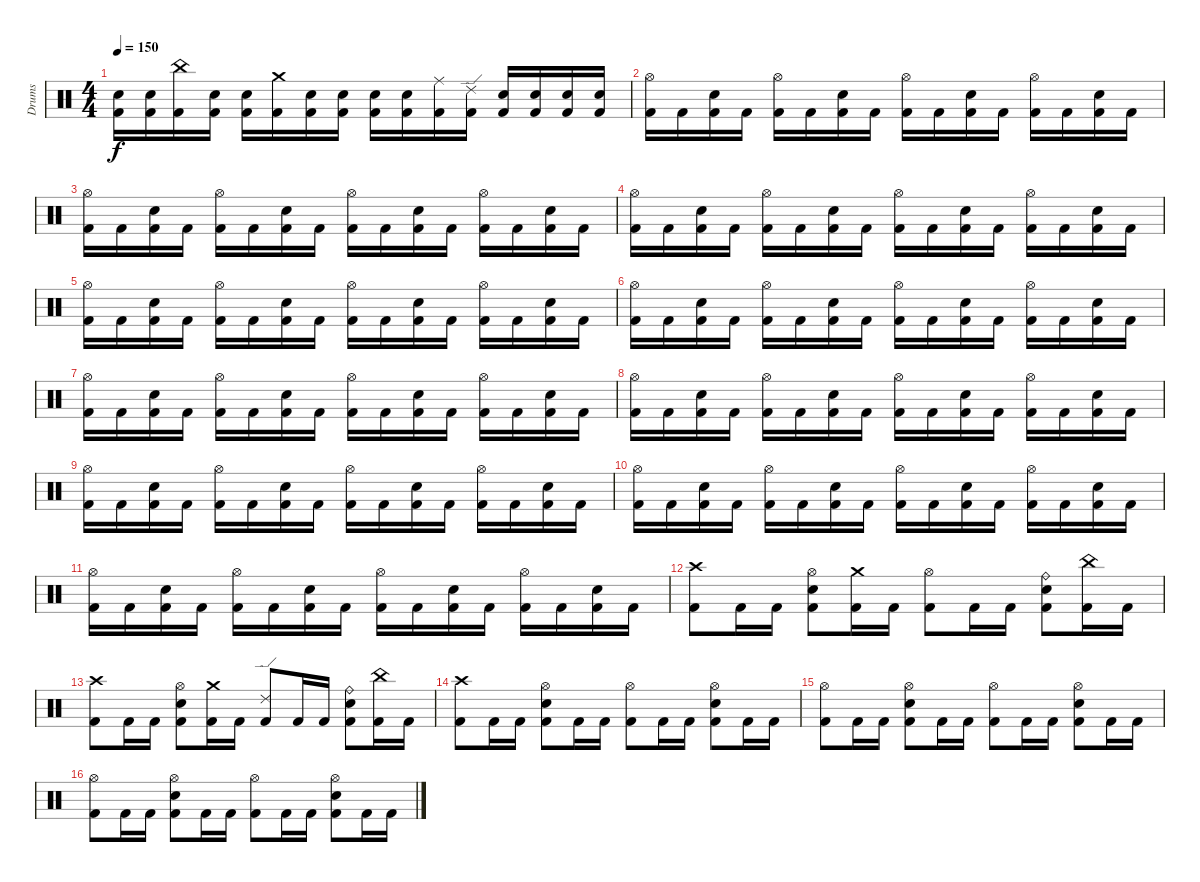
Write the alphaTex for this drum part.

\track ("Drums" "Drums") {instrument percussion}
\staff {score}
\articulation defaults
\ts (4 4)
\tempo 150
\clef neutral
\ks c
("Electric Snare (hit)" "Kick (hit) 2").16{dy f} ("Electric Snare (hit)" "Kick (hit) 2").16 ("China (hit)" "Kick (hit) 2").16 ("Electric Snare (hit)" "Kick (hit) 2").16 ("Electric Snare (hit)" "Kick (hit) 2").16 ("Crash medium (hit)" "Kick (hit) 2").16 ("Electric Snare (hit)" "Kick (hit) 2").16 ("Electric Snare (hit)" "Kick (hit) 2").16 ("Electric Snare (hit)" "Kick (hit) 2").16 ("Electric Snare (hit)" "Kick (hit) 2").16 ("Ride (middle)" "Kick (hit) 2").16 ("Ride (edge) 2" "Kick (hit) 2").16 ("Electric Snare (hit)" "Kick (hit) 2").16 ("Electric Snare (hit)" "Kick (hit) 2").16 ("Electric Snare (hit)" "Kick (hit) 2").16 ("Electric Snare (hit)" "Kick (hit) 2").16 |
("Hi-Hat (open)" "Kick (hit) 2").16 "Kick (hit) 2".16 ("Electric Snare (hit)" "Kick (hit) 2").16 "Kick (hit) 2".16 ("Hi-Hat (open)" "Kick (hit) 2").16 "Kick (hit) 2".16 ("Electric Snare (hit)" "Kick (hit) 2").16 "Kick (hit) 2".16 ("Hi-Hat (open)" "Kick (hit) 2").16 "Kick (hit) 2".16 ("Electric Snare (hit)" "Kick (hit) 2").16 "Kick (hit) 2".16 ("Hi-Hat (open)" "Kick (hit) 2").16 "Kick (hit) 2".16 ("Electric Snare (hit)" "Kick (hit) 2").16 "Kick (hit) 2".16 |
("Hi-Hat (open)" "Kick (hit) 2").16 "Kick (hit) 2".16 ("Electric Snare (hit)" "Kick (hit) 2").16 "Kick (hit) 2".16 ("Hi-Hat (open)" "Kick (hit) 2").16 "Kick (hit) 2".16 ("Electric Snare (hit)" "Kick (hit) 2").16 "Kick (hit) 2".16 ("Hi-Hat (open)" "Kick (hit) 2").16 "Kick (hit) 2".16 ("Electric Snare (hit)" "Kick (hit) 2").16 "Kick (hit) 2".16 ("Hi-Hat (open)" "Kick (hit) 2").16 "Kick (hit) 2".16 ("Electric Snare (hit)" "Kick (hit) 2").16 "Kick (hit) 2".16 |
("Hi-Hat (open)" "Kick (hit) 2").16 "Kick (hit) 2".16 ("Electric Snare (hit)" "Kick (hit) 2").16 "Kick (hit) 2".16 ("Hi-Hat (open)" "Kick (hit) 2").16 "Kick (hit) 2".16 ("Electric Snare (hit)" "Kick (hit) 2").16 "Kick (hit) 2".16 ("Hi-Hat (open)" "Kick (hit) 2").16 "Kick (hit) 2".16 ("Electric Snare (hit)" "Kick (hit) 2").16 "Kick (hit) 2".16 ("Hi-Hat (open)" "Kick (hit) 2").16 "Kick (hit) 2".16 ("Electric Snare (hit)" "Kick (hit) 2").16 "Kick (hit) 2".16 |
("Hi-Hat (open)" "Kick (hit) 2").16 "Kick (hit) 2".16 ("Electric Snare (hit)" "Kick (hit) 2").16 "Kick (hit) 2".16 ("Hi-Hat (open)" "Kick (hit) 2").16 "Kick (hit) 2".16 ("Electric Snare (hit)" "Kick (hit) 2").16 "Kick (hit) 2".16 ("Hi-Hat (open)" "Kick (hit) 2").16 "Kick (hit) 2".16 ("Electric Snare (hit)" "Kick (hit) 2").16 "Kick (hit) 2".16 ("Hi-Hat (open)" "Kick (hit) 2").16 "Kick (hit) 2".16 ("Electric Snare (hit)" "Kick (hit) 2").16 "Kick (hit) 2".16 |
("Hi-Hat (open)" "Kick (hit) 2").16 "Kick (hit) 2".16 ("Electric Snare (hit)" "Kick (hit) 2").16 "Kick (hit) 2".16 ("Hi-Hat (open)" "Kick (hit) 2").16 "Kick (hit) 2".16 ("Electric Snare (hit)" "Kick (hit) 2").16 "Kick (hit) 2".16 ("Hi-Hat (open)" "Kick (hit) 2").16 "Kick (hit) 2".16 ("Electric Snare (hit)" "Kick (hit) 2").16 "Kick (hit) 2".16 ("Hi-Hat (open)" "Kick (hit) 2").16 "Kick (hit) 2".16 ("Electric Snare (hit)" "Kick (hit) 2").16 "Kick (hit) 2".16 |
("Hi-Hat (open)" "Kick (hit) 2").16 "Kick (hit) 2".16 ("Electric Snare (hit)" "Kick (hit) 2").16 "Kick (hit) 2".16 ("Hi-Hat (open)" "Kick (hit) 2").16 "Kick (hit) 2".16 ("Electric Snare (hit)" "Kick (hit) 2").16 "Kick (hit) 2".16 ("Hi-Hat (open)" "Kick (hit) 2").16 "Kick (hit) 2".16 ("Electric Snare (hit)" "Kick (hit) 2").16 "Kick (hit) 2".16 ("Hi-Hat (open)" "Kick (hit) 2").16 "Kick (hit) 2".16 ("Electric Snare (hit)" "Kick (hit) 2").16 "Kick (hit) 2".16 |
("Hi-Hat (open)" "Kick (hit) 2").16 "Kick (hit) 2".16 ("Electric Snare (hit)" "Kick (hit) 2").16 "Kick (hit) 2".16 ("Hi-Hat (open)" "Kick (hit) 2").16 "Kick (hit) 2".16 ("Electric Snare (hit)" "Kick (hit) 2").16 "Kick (hit) 2".16 ("Hi-Hat (open)" "Kick (hit) 2").16 "Kick (hit) 2".16 ("Electric Snare (hit)" "Kick (hit) 2").16 "Kick (hit) 2".16 ("Hi-Hat (open)" "Kick (hit) 2").16 "Kick (hit) 2".16 ("Electric Snare (hit)" "Kick (hit) 2").16 "Kick (hit) 2".16 |
("Hi-Hat (open)" "Kick (hit) 2").16 "Kick (hit) 2".16 ("Electric Snare (hit)" "Kick (hit) 2").16 "Kick (hit) 2".16 ("Hi-Hat (open)" "Kick (hit) 2").16 "Kick (hit) 2".16 ("Electric Snare (hit)" "Kick (hit) 2").16 "Kick (hit) 2".16 ("Hi-Hat (open)" "Kick (hit) 2").16 "Kick (hit) 2".16 ("Electric Snare (hit)" "Kick (hit) 2").16 "Kick (hit) 2".16 ("Hi-Hat (open)" "Kick (hit) 2").16 "Kick (hit) 2".16 ("Electric Snare (hit)" "Kick (hit) 2").16 "Kick (hit) 2".16 |
("Hi-Hat (open)" "Kick (hit) 2").16 "Kick (hit) 2".16 ("Electric Snare (hit)" "Kick (hit) 2").16 "Kick (hit) 2".16 ("Hi-Hat (open)" "Kick (hit) 2").16 "Kick (hit) 2".16 ("Electric Snare (hit)" "Kick (hit) 2").16 "Kick (hit) 2".16 ("Hi-Hat (open)" "Kick (hit) 2").16 "Kick (hit) 2".16 ("Electric Snare (hit)" "Kick (hit) 2").16 "Kick (hit) 2".16 ("Hi-Hat (open)" "Kick (hit) 2").16 "Kick (hit) 2".16 ("Electric Snare (hit)" "Kick (hit) 2").16 "Kick (hit) 2".16 |
("Hi-Hat (open)" "Kick (hit) 2").16 "Kick (hit) 2".16 ("Electric Snare (hit)" "Kick (hit) 2").16 "Kick (hit) 2".16 ("Hi-Hat (open)" "Kick (hit) 2").16 "Kick (hit) 2".16 ("Electric Snare (hit)" "Kick (hit) 2").16 "Kick (hit) 2".16 ("Hi-Hat (open)" "Kick (hit) 2").16 "Kick (hit) 2".16 ("Electric Snare (hit)" "Kick (hit) 2").16 "Kick (hit) 2".16 ("Hi-Hat (open)" "Kick (hit) 2").16 "Kick (hit) 2".16 ("Electric Snare (hit)" "Kick (hit) 2").16 "Kick (hit) 2".16 |
("Crash high (hit)" "Kick (hit) 2").8 "Kick (hit) 2".16 "Kick (hit) 2".16 ("Hi-Hat (open)" "Electric Snare (hit)" "Kick (hit) 2").8 ("Crash medium (hit)" "Kick (hit) 2").16 "Kick (hit) 2".16 ("Hi-Hat (open)" "Kick (hit) 2").8 "Kick (hit) 2".16 "Kick (hit) 2".16 ("Ride (bell)" "Electric Snare (hit)" "Kick (hit) 2").8 ("China (hit)" "Kick (hit) 2").16 "Kick (hit) 2".16 |
("Crash high (hit)" "Kick (hit) 2").8 "Kick (hit) 2".16 "Kick (hit) 2".16 ("Hi-Hat (open)" "Electric Snare (hit)" "Kick (hit) 2").8 ("Crash medium (hit)" "Kick (hit) 2").16 "Kick (hit) 2".16 ("Ride (edge) 2" "Kick (hit) 2").8 "Kick (hit) 2".16 "Kick (hit) 2".16 ("Ride (bell)" "Electric Snare (hit)" "Kick (hit) 2").8 ("China (hit)" "Kick (hit) 2").16 "Kick (hit) 2".16 |
("Crash high (hit)" "Kick (hit) 2").8 "Kick (hit) 2".16 "Kick (hit) 2".16 ("Hi-Hat (open)" "Electric Snare (hit)" "Kick (hit) 2").8 "Kick (hit) 2".16 "Kick (hit) 2".16 ("Hi-Hat (open)" "Kick (hit) 2").8 "Kick (hit) 2".16 "Kick (hit) 2".16 ("Hi-Hat (open)" "Electric Snare (hit)" "Kick (hit) 2").8 "Kick (hit) 2".16 "Kick (hit) 2".16 |
("Hi-Hat (open)" "Kick (hit) 2").8 "Kick (hit) 2".16 "Kick (hit) 2".16 ("Hi-Hat (open)" "Electric Snare (hit)" "Kick (hit) 2").8 "Kick (hit) 2".16 "Kick (hit) 2".16 ("Hi-Hat (open)" "Kick (hit) 2").8 "Kick (hit) 2".16 "Kick (hit) 2".16 ("Hi-Hat (open)" "Electric Snare (hit)" "Kick (hit) 2").8 "Kick (hit) 2".16 "Kick (hit) 2".16 |
("Hi-Hat (open)" "Kick (hit) 2").8 "Kick (hit) 2".16 "Kick (hit) 2".16 ("Hi-Hat (open)" "Electric Snare (hit)" "Kick (hit) 2").8 "Kick (hit) 2".16 "Kick (hit) 2".16 ("Hi-Hat (open)" "Kick (hit) 2").8 "Kick (hit) 2".16 "Kick (hit) 2".16 ("Hi-Hat (open)" "Electric Snare (hit)" "Kick (hit) 2").8 "Kick (hit) 2".16 "Kick (hit) 2".16
